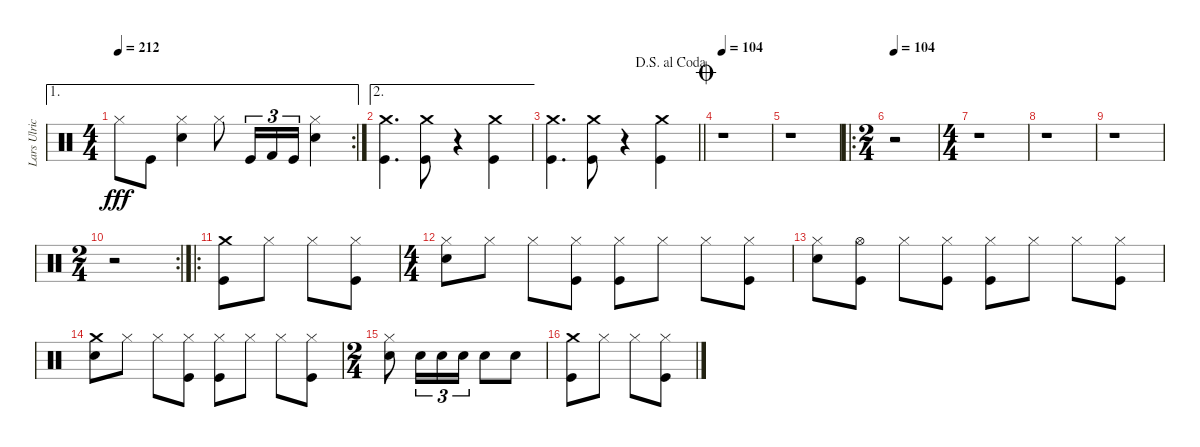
\track ("Lars Ulrich" "Lars Ulric") {instrument percussion}
\staff {score}
\articulation defaults
\ae 1
\rc 2
\ts (4 4)
\tempo 212
\clef neutral
\ks c "Hi-Hat (closed)".8{dy fff} "Kick (hit)".8
("Snare (hit) 2" "Hi-Hat (closed)").4 "Hi-Hat (closed)".8 "Kick (hit)".16{tu (3 2)} "Kick (hit) 2".16{tu (3 2)} "Kick (hit)".16{tu (3 2)} ("Snare (hit) 2" "Hi-Hat (closed)").4 |
\ae 2
("Kick (hit)" "Crash medium (hit)").4{d} ("Crash medium (hit)" "Kick (hit)").8 r.4 ("Kick (hit)" "Crash medium (hit)").4 |
\jump dalsegnoalcoda
\barLineRight lightlight
("Crash medium (hit)" "Kick (hit)").4{d} ("Crash medium (hit)" "Kick (hit)").8 r.4 ("Kick (hit)" "Crash medium (hit)").4 |
\jump coda
\tempo 104
r.1 |
r.1 |
\ro
\ts (2 4)
\tempo 104
r.2 |
\ts (4 4)
r.1 |
r.1 |
r.1 |
\rc 2
\ts (2 4)
r.2 |
\ro
("Kick (hit)" "Crash medium (hit)").8 "Hi-Hat (closed)".8 "Hi-Hat (closed)".8 ("Kick (hit)" "Hi-Hat (closed)").8 |
\ts (4 4)
("Snare (hit) 2" "Hi-Hat (closed)").8 "Hi-Hat (closed)".8 "Hi-Hat (closed)".8 ("Hi-Hat (closed)" "Kick (hit)").8 ("Hi-Hat (closed)" "Kick (hit)").8 "Hi-Hat (closed)".8 "Hi-Hat (closed)".8 ("Kick (hit)" "Hi-Hat (closed)").8 |
("Snare (hit) 2" "Hi-Hat (closed)").8 ("Kick (hit)" "Hi-Hat (open)").8 "Hi-Hat (closed)".8 ("Kick (hit)" "Hi-Hat (closed)").8 ("Hi-Hat (closed)" "Kick (hit)").8 "Hi-Hat (closed)".8 "Hi-Hat (closed)".8 ("Kick (hit)" "Hi-Hat (closed)").8 |
("Snare (hit) 2" "Crash medium (hit)").8 "Hi-Hat (closed)".8 "Hi-Hat (closed)".8 ("Kick (hit)" "Hi-Hat (closed)").8 ("Kick (hit)" "Hi-Hat (closed)").8 "Hi-Hat (closed)".8 "Hi-Hat (closed)".8 ("Kick (hit)" "Hi-Hat (closed)").8 |
\ts (2 4)
("Snare (hit) 2" "Hi-Hat (closed)").8 "Snare (hit) 2".16{tu (3 2)} "Snare (hit) 2".16{tu (3 2)} "Snare (hit) 2".16{tu (3 2)} "Snare (hit) 2".8 "Snare (hit) 2".8 |
("Crash medium (hit)" "Kick (hit)").8 "Hi-Hat (closed)".8 "Hi-Hat (closed)".8 ("Kick (hit)" "Hi-Hat (closed)").8
